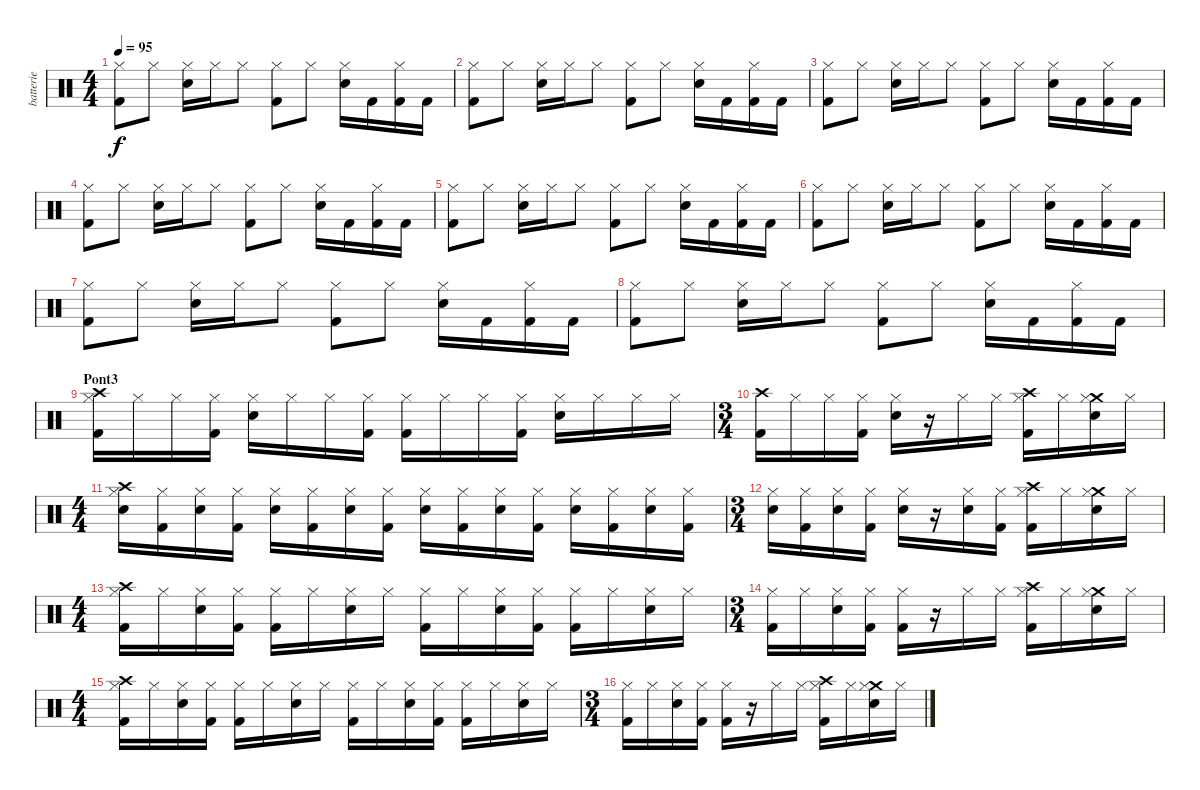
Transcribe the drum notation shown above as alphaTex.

\track ("batterie" "batterie") {instrument percussion}
\staff {score}
\articulation defaults
\ts (4 4)
\tempo 95
\clef neutral
\ks c
("Kick (hit) 2" "Hi-Hat (closed)").8{dy f} "Hi-Hat (closed)".8 ("Snare (hit) 2" "Hi-Hat (closed)").16 "Hi-Hat (closed)".16 "Hi-Hat (closed)".8 ("Kick (hit) 2" "Hi-Hat (closed)").8 "Hi-Hat (closed)".8 ("Snare (hit) 2" "Hi-Hat (closed)").16 "Kick (hit) 2".16 ("Kick (hit) 2" "Hi-Hat (closed)").16 "Kick (hit) 2".16 |
("Kick (hit) 2" "Hi-Hat (closed)").8 "Hi-Hat (closed)".8 ("Snare (hit) 2" "Hi-Hat (closed)").16 "Hi-Hat (closed)".16 "Hi-Hat (closed)".8 ("Kick (hit) 2" "Hi-Hat (closed)").8 "Hi-Hat (closed)".8 ("Snare (hit) 2" "Hi-Hat (closed)").16 "Kick (hit) 2".16 ("Kick (hit) 2" "Hi-Hat (closed)").16 "Kick (hit) 2".16 |
("Kick (hit) 2" "Hi-Hat (closed)").8 "Hi-Hat (closed)".8 ("Snare (hit) 2" "Hi-Hat (closed)").16 "Hi-Hat (closed)".16 "Hi-Hat (closed)".8 ("Kick (hit) 2" "Hi-Hat (closed)").8 "Hi-Hat (closed)".8 ("Snare (hit) 2" "Hi-Hat (closed)").16 "Kick (hit) 2".16 ("Kick (hit) 2" "Hi-Hat (closed)").16 "Kick (hit) 2".16 |
("Kick (hit) 2" "Hi-Hat (closed)").8 "Hi-Hat (closed)".8 ("Snare (hit) 2" "Hi-Hat (closed)").16 "Hi-Hat (closed)".16 "Hi-Hat (closed)".8 ("Kick (hit) 2" "Hi-Hat (closed)").8 "Hi-Hat (closed)".8 ("Snare (hit) 2" "Hi-Hat (closed)").16 "Kick (hit) 2".16 ("Kick (hit) 2" "Hi-Hat (closed)").16 "Kick (hit) 2".16 |
("Kick (hit) 2" "Hi-Hat (closed)").8 "Hi-Hat (closed)".8 ("Snare (hit) 2" "Hi-Hat (closed)").16 "Hi-Hat (closed)".16 "Hi-Hat (closed)".8 ("Kick (hit) 2" "Hi-Hat (closed)").8 "Hi-Hat (closed)".8 ("Snare (hit) 2" "Hi-Hat (closed)").16 "Kick (hit) 2".16 ("Kick (hit) 2" "Hi-Hat (closed)").16 "Kick (hit) 2".16 |
("Kick (hit) 2" "Hi-Hat (closed)").8 "Hi-Hat (closed)".8 ("Snare (hit) 2" "Hi-Hat (closed)").16 "Hi-Hat (closed)".16 "Hi-Hat (closed)".8 ("Kick (hit) 2" "Hi-Hat (closed)").8 "Hi-Hat (closed)".8 ("Snare (hit) 2" "Hi-Hat (closed)").16 "Kick (hit) 2".16 ("Kick (hit) 2" "Hi-Hat (closed)").16 "Kick (hit) 2".16 |
("Kick (hit) 2" "Hi-Hat (closed)").8 "Hi-Hat (closed)".8 ("Snare (hit) 2" "Hi-Hat (closed)").16 "Hi-Hat (closed)".16 "Hi-Hat (closed)".8 ("Kick (hit) 2" "Hi-Hat (closed)").8 "Hi-Hat (closed)".8 ("Snare (hit) 2" "Hi-Hat (closed)").16 "Kick (hit) 2".16 ("Kick (hit) 2" "Hi-Hat (closed)").16 "Kick (hit) 2".16 |
("Kick (hit) 2" "Hi-Hat (closed)").8 "Hi-Hat (closed)".8 ("Snare (hit) 2" "Hi-Hat (closed)").16 "Hi-Hat (closed)".16 "Hi-Hat (closed)".8 ("Kick (hit) 2" "Hi-Hat (closed)").8 "Hi-Hat (closed)".8 ("Snare (hit) 2" "Hi-Hat (closed)").16 "Kick (hit) 2".16 ("Kick (hit) 2" "Hi-Hat (closed)").16 "Kick (hit) 2".16 |
\section ("" "Pont3")
("Crash high (hit)" "Kick (hit) 2" "Hi-Hat (closed)").16 "Hi-Hat (closed)".16 "Hi-Hat (closed)".16 ("Kick (hit) 2" "Hi-Hat (closed)").16 ("Electric Snare (hit)" "Hi-Hat (closed)").16 "Hi-Hat (closed)".16 "Hi-Hat (closed)".16 ("Kick (hit) 2" "Hi-Hat (closed)").16 ("Kick (hit) 2" "Hi-Hat (closed)").16 "Hi-Hat (closed)".16 "Hi-Hat (closed)".16 ("Kick (hit) 2" "Hi-Hat (closed)").16 ("Electric Snare (hit)" "Hi-Hat (closed)").16 "Hi-Hat (closed)".16 "Hi-Hat (closed)".16 "Hi-Hat (closed)".16 |
\ts (3 4)
("Crash high (hit)" "Kick (hit) 2").16 "Hi-Hat (closed)".16 "Hi-Hat (closed)".16 ("Kick (hit) 2" "Hi-Hat (closed)").16 ("Snare (hit) 2" "Hi-Hat (closed)").16 r.16 "Hi-Hat (closed)".16 "Hi-Hat (closed)".16 ("Crash high (hit)" "Kick (hit) 2" "Hi-Hat (closed)").16 "Hi-Hat (closed)".16 ("Crash medium (hit)" "Snare (hit) 2" "Hi-Hat (closed)").16 "Hi-Hat (closed)".16 |
\ts (4 4)
("Crash high (hit)" "Snare (hit) 2" "Hi-Hat (closed)").16 ("Kick (hit) 2" "Hi-Hat (closed)").16 ("Snare (hit) 2" "Hi-Hat (closed)").16 ("Kick (hit) 2" "Hi-Hat (closed)").16 ("Snare (hit) 2" "Hi-Hat (closed)").16 ("Kick (hit) 2" "Hi-Hat (closed)").16 ("Snare (hit) 2" "Hi-Hat (closed)").16 ("Kick (hit) 2" "Hi-Hat (closed)").16 ("Snare (hit) 2" "Hi-Hat (closed)").16 ("Kick (hit) 2" "Hi-Hat (closed)").16 ("Snare (hit) 2" "Hi-Hat (closed)").16 ("Kick (hit) 2" "Hi-Hat (closed)").16 ("Snare (hit) 2" "Hi-Hat (closed)").16 ("Kick (hit) 2" "Hi-Hat (closed)").16 ("Snare (hit) 2" "Hi-Hat (closed)").16 ("Kick (hit) 2" "Hi-Hat (closed)").16 |
\ts (3 4)
("Snare (hit) 2" "Hi-Hat (closed)").16 ("Kick (hit) 2" "Hi-Hat (closed)").16 ("Snare (hit) 2" "Hi-Hat (closed)").16 ("Kick (hit) 2" "Hi-Hat (closed)").16 ("Snare (hit) 2" "Hi-Hat (closed)").16 r.16 ("Snare (hit) 2" "Hi-Hat (closed)").16 ("Kick (hit) 2" "Hi-Hat (closed)").16 ("Crash high (hit)" "Kick (hit) 2" "Hi-Hat (closed)").16 "Hi-Hat (closed)".16 ("Crash medium (hit)" "Snare (hit) 2" "Hi-Hat (closed)").16 "Hi-Hat (closed)".16 |
\ts (4 4)
("Crash high (hit)" "Kick (hit) 2" "Hi-Hat (closed)").16 "Hi-Hat (closed)".16 ("Snare (hit) 2" "Hi-Hat (closed)").16 ("Kick (hit) 2" "Hi-Hat (closed)").16 ("Kick (hit) 2" "Hi-Hat (closed)").16 "Hi-Hat (closed)".16 ("Snare (hit) 2" "Hi-Hat (closed)").16 "Hi-Hat (closed)".16 ("Kick (hit) 2" "Hi-Hat (closed)").16 "Hi-Hat (closed)".16 ("Snare (hit) 2" "Hi-Hat (closed)").16 ("Kick (hit) 2" "Hi-Hat (closed)").16 ("Kick (hit) 2" "Hi-Hat (closed)").16 "Hi-Hat (closed)".16 ("Snare (hit) 2" "Hi-Hat (closed)").16 "Hi-Hat (closed)".16 |
\ts (3 4)
("Kick (hit) 2" "Hi-Hat (closed)").16 "Hi-Hat (closed)".16 ("Snare (hit) 2" "Hi-Hat (closed)").16 ("Kick (hit) 2" "Hi-Hat (closed)").16 ("Kick (hit) 2" "Hi-Hat (closed)").16 r.16 "Hi-Hat (closed)".16 "Hi-Hat (closed)".16 ("Crash high (hit)" "Kick (hit) 2" "Hi-Hat (closed)").16 "Hi-Hat (closed)".16 ("Crash medium (hit)" "Snare (hit) 2" "Hi-Hat (closed)").16 "Hi-Hat (closed)".16 |
\ts (4 4)
("Crash high (hit)" "Kick (hit) 2" "Hi-Hat (closed)").16 "Hi-Hat (closed)".16 ("Snare (hit) 2" "Hi-Hat (closed)").16 ("Kick (hit) 2" "Hi-Hat (closed)").16 ("Kick (hit) 2" "Hi-Hat (closed)").16 "Hi-Hat (closed)".16 ("Snare (hit) 2" "Hi-Hat (closed)").16 "Hi-Hat (closed)".16 ("Kick (hit) 2" "Hi-Hat (closed)").16 "Hi-Hat (closed)".16 ("Snare (hit) 2" "Hi-Hat (closed)").16 ("Kick (hit) 2" "Hi-Hat (closed)").16 ("Kick (hit) 2" "Hi-Hat (closed)").16 "Hi-Hat (closed)".16 ("Snare (hit) 2" "Hi-Hat (closed)").16 "Hi-Hat (closed)".16 |
\ts (3 4)
("Kick (hit) 2" "Hi-Hat (closed)").16 "Hi-Hat (closed)".16 ("Snare (hit) 2" "Hi-Hat (closed)").16 ("Kick (hit) 2" "Hi-Hat (closed)").16 ("Kick (hit) 2" "Hi-Hat (closed)").16 r.16 "Hi-Hat (closed)".16 "Hi-Hat (closed)".16 ("Crash high (hit)" "Kick (hit) 2" "Hi-Hat (closed)").16 "Hi-Hat (closed)".16 ("Crash medium (hit)" "Snare (hit) 2" "Hi-Hat (closed)").16 "Hi-Hat (closed)".16
